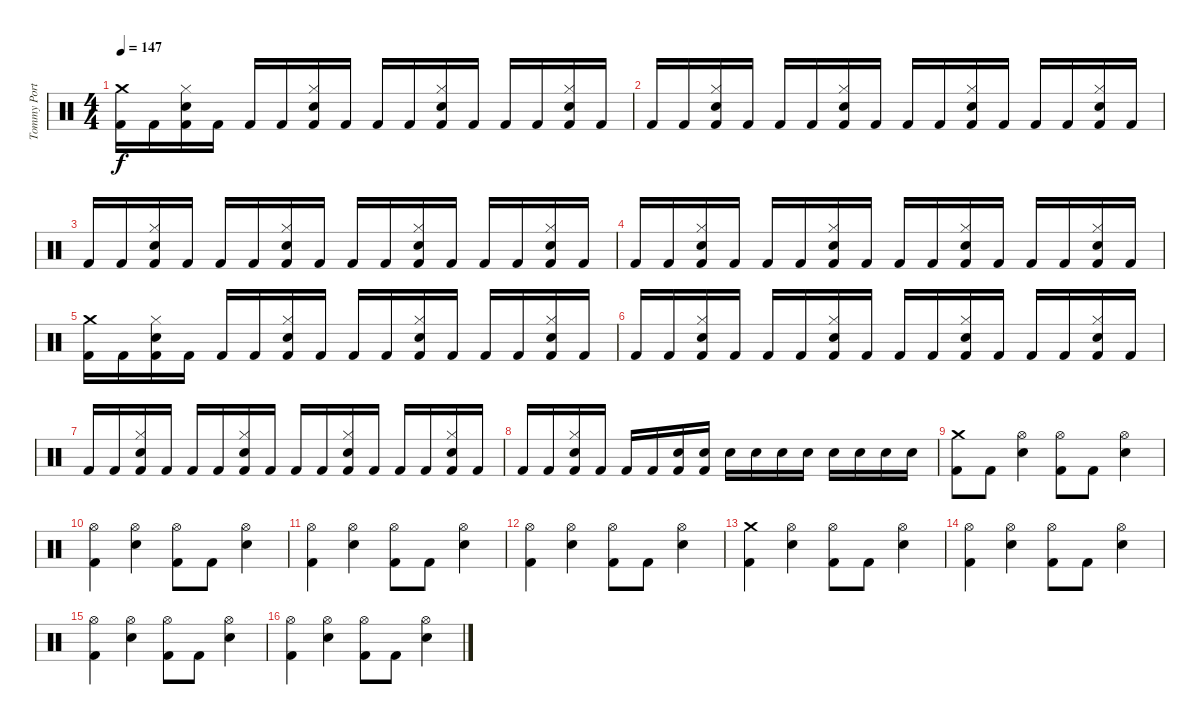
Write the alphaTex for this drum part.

\track ("Tommy Portino" "Tommy Port") {instrument percussion}
\staff {score}
\articulation defaults
\ts (4 4)
\tempo 147
\clef neutral
\ks c
("Crash medium (hit)" "Kick (hit) 2").16{dy f} "Kick (hit) 2".16 ("Hi-Hat (closed)" "Electric Snare (hit)" "Kick (hit) 2").16 "Kick (hit) 2".16 "Kick (hit) 2".16 "Kick (hit) 2".16 ("Hi-Hat (closed)" "Electric Snare (hit)" "Kick (hit) 2").16 "Kick (hit) 2".16 "Kick (hit) 2".16 "Kick (hit) 2".16 ("Hi-Hat (closed)" "Electric Snare (hit)" "Kick (hit) 2").16 "Kick (hit) 2".16 "Kick (hit) 2".16 "Kick (hit) 2".16 ("Hi-Hat (closed)" "Electric Snare (hit)" "Kick (hit) 2").16 "Kick (hit) 2".16 |
"Kick (hit) 2".16 "Kick (hit) 2".16 ("Hi-Hat (closed)" "Electric Snare (hit)" "Kick (hit) 2").16 "Kick (hit) 2".16 "Kick (hit) 2".16 "Kick (hit) 2".16 ("Hi-Hat (closed)" "Electric Snare (hit)" "Kick (hit) 2").16 "Kick (hit) 2".16 "Kick (hit) 2".16 "Kick (hit) 2".16 ("Hi-Hat (closed)" "Electric Snare (hit)" "Kick (hit) 2").16 "Kick (hit) 2".16 "Kick (hit) 2".16 "Kick (hit) 2".16 ("Hi-Hat (closed)" "Electric Snare (hit)" "Kick (hit) 2").16 "Kick (hit) 2".16 |
"Kick (hit) 2".16 "Kick (hit) 2".16 ("Hi-Hat (closed)" "Electric Snare (hit)" "Kick (hit) 2").16 "Kick (hit) 2".16 "Kick (hit) 2".16 "Kick (hit) 2".16 ("Hi-Hat (closed)" "Electric Snare (hit)" "Kick (hit) 2").16 "Kick (hit) 2".16 "Kick (hit) 2".16 "Kick (hit) 2".16 ("Hi-Hat (closed)" "Electric Snare (hit)" "Kick (hit) 2").16 "Kick (hit) 2".16 "Kick (hit) 2".16 "Kick (hit) 2".16 ("Hi-Hat (closed)" "Electric Snare (hit)" "Kick (hit) 2").16 "Kick (hit) 2".16 |
"Kick (hit) 2".16 "Kick (hit) 2".16 ("Hi-Hat (closed)" "Electric Snare (hit)" "Kick (hit) 2").16 "Kick (hit) 2".16 "Kick (hit) 2".16 "Kick (hit) 2".16 ("Hi-Hat (closed)" "Electric Snare (hit)" "Kick (hit) 2").16 "Kick (hit) 2".16 "Kick (hit) 2".16 "Kick (hit) 2".16 ("Hi-Hat (closed)" "Electric Snare (hit)" "Kick (hit) 2").16 "Kick (hit) 2".16 "Kick (hit) 2".16 "Kick (hit) 2".16 ("Hi-Hat (closed)" "Electric Snare (hit)" "Kick (hit) 2").16 "Kick (hit) 2".16 |
("Crash medium (hit)" "Kick (hit) 2").16 "Kick (hit) 2".16 ("Hi-Hat (closed)" "Electric Snare (hit)" "Kick (hit) 2").16 "Kick (hit) 2".16 "Kick (hit) 2".16 "Kick (hit) 2".16 ("Hi-Hat (closed)" "Electric Snare (hit)" "Kick (hit) 2").16 "Kick (hit) 2".16 "Kick (hit) 2".16 "Kick (hit) 2".16 ("Hi-Hat (closed)" "Electric Snare (hit)" "Kick (hit) 2").16 "Kick (hit) 2".16 "Kick (hit) 2".16 "Kick (hit) 2".16 ("Hi-Hat (closed)" "Electric Snare (hit)" "Kick (hit) 2").16 "Kick (hit) 2".16 |
"Kick (hit) 2".16 "Kick (hit) 2".16 ("Hi-Hat (closed)" "Electric Snare (hit)" "Kick (hit) 2").16 "Kick (hit) 2".16 "Kick (hit) 2".16 "Kick (hit) 2".16 ("Hi-Hat (closed)" "Electric Snare (hit)" "Kick (hit) 2").16 "Kick (hit) 2".16 "Kick (hit) 2".16 "Kick (hit) 2".16 ("Hi-Hat (closed)" "Electric Snare (hit)" "Kick (hit) 2").16 "Kick (hit) 2".16 "Kick (hit) 2".16 "Kick (hit) 2".16 ("Hi-Hat (closed)" "Electric Snare (hit)" "Kick (hit) 2").16 "Kick (hit) 2".16 |
"Kick (hit) 2".16 "Kick (hit) 2".16 ("Hi-Hat (closed)" "Electric Snare (hit)" "Kick (hit) 2").16 "Kick (hit) 2".16 "Kick (hit) 2".16 "Kick (hit) 2".16 ("Hi-Hat (closed)" "Electric Snare (hit)" "Kick (hit) 2").16 "Kick (hit) 2".16 "Kick (hit) 2".16 "Kick (hit) 2".16 ("Hi-Hat (closed)" "Electric Snare (hit)" "Kick (hit) 2").16 "Kick (hit) 2".16 "Kick (hit) 2".16 "Kick (hit) 2".16 ("Hi-Hat (closed)" "Electric Snare (hit)" "Kick (hit) 2").16 "Kick (hit) 2".16 |
"Kick (hit) 2".16 "Kick (hit) 2".16 ("Hi-Hat (closed)" "Electric Snare (hit)" "Kick (hit) 2").16 "Kick (hit) 2".16 "Kick (hit) 2".16 "Kick (hit) 2".16 ("Electric Snare (hit)" "Kick (hit) 2").16 ("Electric Snare (hit)" "Kick (hit) 2").16 "Electric Snare (hit)".16 "Electric Snare (hit)".16 "Electric Snare (hit)".16 "Electric Snare (hit)".16 "Electric Snare (hit)".16 "Electric Snare (hit)".16 "Electric Snare (hit)".16 "Electric Snare (hit)".16 |
("Crash medium (hit)" "Kick (hit) 2").8 "Kick (hit) 2".8 ("Hi-Hat (open)" "Electric Snare (hit)").4 ("Hi-Hat (open)" "Kick (hit) 2").8 "Kick (hit) 2".8 ("Hi-Hat (open)" "Electric Snare (hit)").4 |
("Hi-Hat (open)" "Kick (hit) 2").4 ("Hi-Hat (open)" "Electric Snare (hit)").4 ("Hi-Hat (open)" "Kick (hit) 2").8 "Kick (hit) 2".8 ("Hi-Hat (open)" "Electric Snare (hit)").4 |
("Hi-Hat (open)" "Kick (hit) 2").4 ("Hi-Hat (open)" "Electric Snare (hit)").4 ("Hi-Hat (open)" "Kick (hit) 2").8 "Kick (hit) 2".8 ("Hi-Hat (open)" "Electric Snare (hit)").4 |
("Hi-Hat (open)" "Kick (hit) 2").4 ("Hi-Hat (open)" "Electric Snare (hit)").4 ("Hi-Hat (open)" "Kick (hit) 2").8 "Kick (hit) 2".8 ("Hi-Hat (open)" "Electric Snare (hit)").4 |
("Crash medium (hit)" "Kick (hit) 2").4 ("Hi-Hat (open)" "Electric Snare (hit)").4 ("Hi-Hat (open)" "Kick (hit) 2").8 "Kick (hit) 2".8 ("Hi-Hat (open)" "Electric Snare (hit)").4 |
("Hi-Hat (open)" "Kick (hit) 2").4 ("Hi-Hat (open)" "Electric Snare (hit)").4 ("Hi-Hat (open)" "Kick (hit) 2").8 "Kick (hit) 2".8 ("Hi-Hat (open)" "Electric Snare (hit)").4 |
("Hi-Hat (open)" "Kick (hit) 2").4 ("Hi-Hat (open)" "Electric Snare (hit)").4 ("Hi-Hat (open)" "Kick (hit) 2").8 "Kick (hit) 2".8 ("Hi-Hat (open)" "Electric Snare (hit)").4 |
("Hi-Hat (open)" "Kick (hit) 2").4 ("Hi-Hat (open)" "Electric Snare (hit)").4 ("Hi-Hat (open)" "Kick (hit) 2").8 "Kick (hit) 2".8 ("Hi-Hat (open)" "Electric Snare (hit)").4
